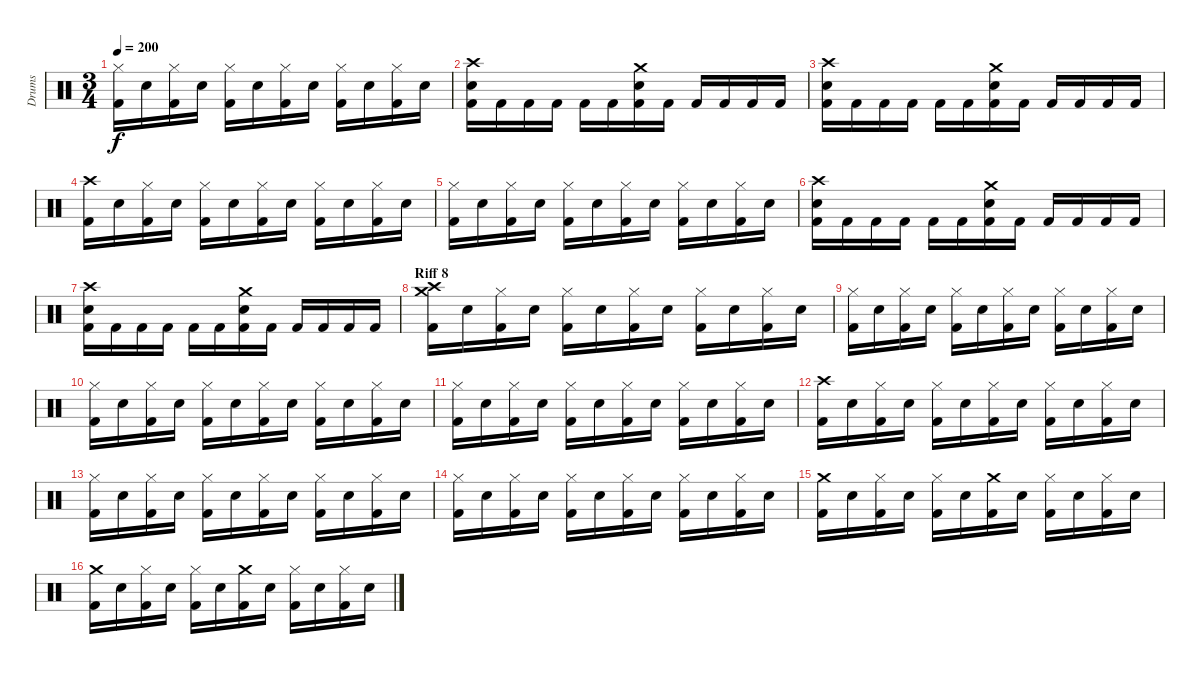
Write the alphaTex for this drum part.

\track ("Drums" "Drums") {instrument percussion}
\staff {score}
\articulation defaults
\ts (3 4)
\tempo 200
\clef neutral
\ks c
("Hi-Hat (closed)" "Kick (hit) 2").16{dy f} "Electric Snare (hit)".16 ("Hi-Hat (closed)" "Kick (hit) 2").16 "Electric Snare (hit)".16 ("Hi-Hat (closed)" "Kick (hit) 2").16 "Electric Snare (hit)".16 ("Hi-Hat (closed)" "Kick (hit) 2").16 "Electric Snare (hit)".16 ("Hi-Hat (closed)" "Kick (hit) 2").16 "Electric Snare (hit)".16 ("Hi-Hat (closed)" "Kick (hit) 2").16 "Electric Snare (hit)".16 |
("Crash high (hit)" "Electric Snare (hit)" "Kick (hit) 2").16 "Kick (hit) 2".16 "Kick (hit) 2".16 "Kick (hit) 2".16 "Kick (hit) 2".16 "Kick (hit) 2".16 ("Crash medium (hit)" "Electric Snare (hit)" "Kick (hit) 2").16 "Kick (hit) 2".16 "Kick (hit) 2".16 "Kick (hit) 2".16 "Kick (hit) 2".16 "Kick (hit) 2".16 |
("Crash high (hit)" "Electric Snare (hit)" "Kick (hit) 2").16 "Kick (hit) 2".16 "Kick (hit) 2".16 "Kick (hit) 2".16 "Kick (hit) 2".16 "Kick (hit) 2".16 ("Crash medium (hit)" "Electric Snare (hit)" "Kick (hit) 2").16 "Kick (hit) 2".16 "Kick (hit) 2".16 "Kick (hit) 2".16 "Kick (hit) 2".16 "Kick (hit) 2".16 |
("Crash high (hit)" "Kick (hit) 2").16 "Electric Snare (hit)".16 ("Hi-Hat (closed)" "Kick (hit) 2").16 "Electric Snare (hit)".16 ("Hi-Hat (closed)" "Kick (hit) 2").16 "Electric Snare (hit)".16 ("Hi-Hat (closed)" "Kick (hit) 2").16 "Electric Snare (hit)".16 ("Hi-Hat (closed)" "Kick (hit) 2").16 "Electric Snare (hit)".16 ("Hi-Hat (closed)" "Kick (hit) 2").16 "Electric Snare (hit)".16 |
("Hi-Hat (closed)" "Kick (hit) 2").16 "Electric Snare (hit)".16 ("Hi-Hat (closed)" "Kick (hit) 2").16 "Electric Snare (hit)".16 ("Hi-Hat (closed)" "Kick (hit) 2").16 "Electric Snare (hit)".16 ("Hi-Hat (closed)" "Kick (hit) 2").16 "Electric Snare (hit)".16 ("Hi-Hat (closed)" "Kick (hit) 2").16 "Electric Snare (hit)".16 ("Hi-Hat (closed)" "Kick (hit) 2").16 "Electric Snare (hit)".16 |
("Crash high (hit)" "Electric Snare (hit)" "Kick (hit) 2").16 "Kick (hit) 2".16 "Kick (hit) 2".16 "Kick (hit) 2".16 "Kick (hit) 2".16 "Kick (hit) 2".16 ("Crash medium (hit)" "Electric Snare (hit)" "Kick (hit) 2").16 "Kick (hit) 2".16 "Kick (hit) 2".16 "Kick (hit) 2".16 "Kick (hit) 2".16 "Kick (hit) 2".16 |
("Crash high (hit)" "Electric Snare (hit)" "Kick (hit) 2").16 "Kick (hit) 2".16 "Kick (hit) 2".16 "Kick (hit) 2".16 "Kick (hit) 2".16 "Kick (hit) 2".16 ("Crash medium (hit)" "Electric Snare (hit)" "Kick (hit) 2").16 "Kick (hit) 2".16 "Kick (hit) 2".16 "Kick (hit) 2".16 "Kick (hit) 2".16 "Kick (hit) 2".16 |
\section ("" "Riff 8")
("Crash medium (hit)" "Crash high (hit)" "Kick (hit) 2").16 "Electric Snare (hit)".16 ("Hi-Hat (closed)" "Kick (hit) 2").16 "Electric Snare (hit)".16 ("Hi-Hat (closed)" "Kick (hit) 2").16 "Electric Snare (hit)".16 ("Hi-Hat (closed)" "Kick (hit) 2").16 "Electric Snare (hit)".16 ("Hi-Hat (closed)" "Kick (hit) 2").16 "Electric Snare (hit)".16 ("Hi-Hat (closed)" "Kick (hit) 2").16 "Electric Snare (hit)".16 |
("Hi-Hat (closed)" "Kick (hit) 2").16 "Electric Snare (hit)".16 ("Hi-Hat (closed)" "Kick (hit) 2").16 "Electric Snare (hit)".16 ("Hi-Hat (closed)" "Kick (hit) 2").16 "Electric Snare (hit)".16 ("Hi-Hat (closed)" "Kick (hit) 2").16 "Electric Snare (hit)".16 ("Hi-Hat (closed)" "Kick (hit) 2").16 "Electric Snare (hit)".16 ("Hi-Hat (closed)" "Kick (hit) 2").16 "Electric Snare (hit)".16 |
("Hi-Hat (closed)" "Kick (hit) 2").16 "Electric Snare (hit)".16 ("Hi-Hat (closed)" "Kick (hit) 2").16 "Electric Snare (hit)".16 ("Hi-Hat (closed)" "Kick (hit) 2").16 "Electric Snare (hit)".16 ("Hi-Hat (closed)" "Kick (hit) 2").16 "Electric Snare (hit)".16 ("Hi-Hat (closed)" "Kick (hit) 2").16 "Electric Snare (hit)".16 ("Hi-Hat (closed)" "Kick (hit) 2").16 "Electric Snare (hit)".16 |
("Hi-Hat (closed)" "Kick (hit) 2").16 "Electric Snare (hit)".16 ("Hi-Hat (closed)" "Kick (hit) 2").16 "Electric Snare (hit)".16 ("Hi-Hat (closed)" "Kick (hit) 2").16 "Electric Snare (hit)".16 ("Hi-Hat (closed)" "Kick (hit) 2").16 "Electric Snare (hit)".16 ("Hi-Hat (closed)" "Kick (hit) 2").16 "Electric Snare (hit)".16 ("Hi-Hat (closed)" "Kick (hit) 2").16 "Electric Snare (hit)".16 |
("Crash high (hit)" "Kick (hit) 2").16 "Electric Snare (hit)".16 ("Hi-Hat (closed)" "Kick (hit) 2").16 "Electric Snare (hit)".16 ("Hi-Hat (closed)" "Kick (hit) 2").16 "Electric Snare (hit)".16 ("Hi-Hat (closed)" "Kick (hit) 2").16 "Electric Snare (hit)".16 ("Hi-Hat (closed)" "Kick (hit) 2").16 "Electric Snare (hit)".16 ("Hi-Hat (closed)" "Kick (hit) 2").16 "Electric Snare (hit)".16 |
("Hi-Hat (closed)" "Kick (hit) 2").16 "Electric Snare (hit)".16 ("Hi-Hat (closed)" "Kick (hit) 2").16 "Electric Snare (hit)".16 ("Hi-Hat (closed)" "Kick (hit) 2").16 "Electric Snare (hit)".16 ("Hi-Hat (closed)" "Kick (hit) 2").16 "Electric Snare (hit)".16 ("Hi-Hat (closed)" "Kick (hit) 2").16 "Electric Snare (hit)".16 ("Hi-Hat (closed)" "Kick (hit) 2").16 "Electric Snare (hit)".16 |
("Hi-Hat (closed)" "Kick (hit) 2").16 "Electric Snare (hit)".16 ("Hi-Hat (closed)" "Kick (hit) 2").16 "Electric Snare (hit)".16 ("Hi-Hat (closed)" "Kick (hit) 2").16 "Electric Snare (hit)".16 ("Hi-Hat (closed)" "Kick (hit) 2").16 "Electric Snare (hit)".16 ("Hi-Hat (closed)" "Kick (hit) 2").16 "Electric Snare (hit)".16 ("Hi-Hat (closed)" "Kick (hit) 2").16 "Electric Snare (hit)".16 |
("Crash medium (hit)" "Kick (hit) 2").16 "Electric Snare (hit)".16 ("Hi-Hat (closed)" "Kick (hit) 2").16 "Electric Snare (hit)".16 ("Hi-Hat (closed)" "Kick (hit) 2").16 "Electric Snare (hit)".16 ("Crash medium (hit)" "Kick (hit) 2").16 "Electric Snare (hit)".16 ("Hi-Hat (closed)" "Kick (hit) 2").16 "Electric Snare (hit)".16 ("Hi-Hat (closed)" "Kick (hit) 2").16 "Electric Snare (hit)".16 |
("Crash medium (hit)" "Kick (hit) 2").16 "Electric Snare (hit)".16 ("Hi-Hat (closed)" "Kick (hit) 2").16 "Electric Snare (hit)".16 ("Hi-Hat (closed)" "Kick (hit) 2").16 "Electric Snare (hit)".16 ("Crash medium (hit)" "Kick (hit) 2").16 "Electric Snare (hit)".16 ("Hi-Hat (closed)" "Kick (hit) 2").16 "Electric Snare (hit)".16 ("Hi-Hat (closed)" "Kick (hit) 2").16 "Electric Snare (hit)".16
